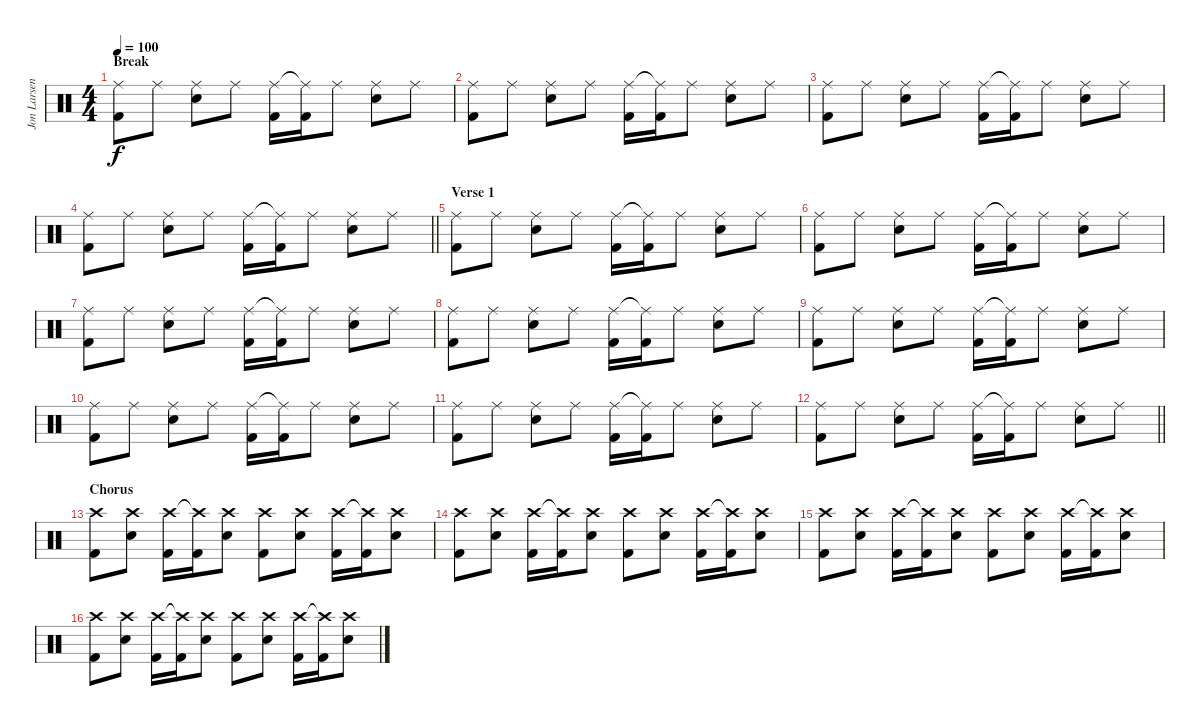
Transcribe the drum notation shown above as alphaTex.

\track ("Jon Larsen" "Jon Larsen") {instrument percussion}
\staff {score}
\articulation defaults
\ts (4 4)
\section ("" "Break")
\tempo 100
\clef neutral
\ks c
("Ride (middle)" "Kick (hit) 2").8{dy f} "Ride (middle)".8 ("Ride (middle)" "Snare (hit) 2").8 "Ride (middle)".8 ("Ride (middle)" "Kick (hit) 2").16 ("Ride (middle)"{t} "Kick (hit) 2").16 "Ride (middle)".8 ("Ride (middle)" "Snare (hit) 2").8 "Ride (middle)".8 |
("Ride (middle)" "Kick (hit) 2").8 "Ride (middle)".8 ("Ride (middle)" "Snare (hit) 2").8 "Ride (middle)".8 ("Ride (middle)" "Kick (hit) 2").16 ("Ride (middle)"{t} "Kick (hit) 2").16 "Ride (middle)".8 ("Ride (middle)" "Snare (hit) 2").8 "Ride (middle)".8 |
("Ride (middle)" "Kick (hit) 2").8 "Ride (middle)".8 ("Ride (middle)" "Snare (hit) 2").8 "Ride (middle)".8 ("Ride (middle)" "Kick (hit) 2").16 ("Ride (middle)"{t} "Kick (hit) 2").16 "Ride (middle)".8 ("Ride (middle)" "Snare (hit) 2").8 "Ride (middle)".8 |
\barLineRight lightlight
("Ride (middle)" "Kick (hit) 2").8 "Ride (middle)".8 ("Ride (middle)" "Snare (hit) 2").8 "Ride (middle)".8 ("Ride (middle)" "Kick (hit) 2").16 ("Ride (middle)"{t} "Kick (hit) 2").16 "Ride (middle)".8 ("Ride (middle)" "Snare (hit) 2").8 "Ride (middle)".8 |
\section ("" "Verse 1")
("Ride (middle)" "Kick (hit) 2").8 "Ride (middle)".8 ("Ride (middle)" "Snare (hit) 2").8 "Ride (middle)".8 ("Ride (middle)" "Kick (hit) 2").16 ("Ride (middle)"{t} "Kick (hit) 2").16 "Ride (middle)".8 ("Ride (middle)" "Snare (hit) 2").8 "Ride (middle)".8 |
("Ride (middle)" "Kick (hit) 2").8 "Ride (middle)".8 ("Ride (middle)" "Snare (hit) 2").8 "Ride (middle)".8 ("Ride (middle)" "Kick (hit) 2").16 ("Ride (middle)"{t} "Kick (hit) 2").16 "Ride (middle)".8 ("Ride (middle)" "Snare (hit) 2").8 "Ride (middle)".8 |
("Ride (middle)" "Kick (hit) 2").8 "Ride (middle)".8 ("Ride (middle)" "Snare (hit) 2").8 "Ride (middle)".8 ("Ride (middle)" "Kick (hit) 2").16 ("Ride (middle)"{t} "Kick (hit) 2").16 "Ride (middle)".8 ("Ride (middle)" "Snare (hit) 2").8 "Ride (middle)".8 |
("Ride (middle)" "Kick (hit) 2").8 "Ride (middle)".8 ("Ride (middle)" "Snare (hit) 2").8 "Ride (middle)".8 ("Ride (middle)" "Kick (hit) 2").16 ("Ride (middle)"{t} "Kick (hit) 2").16 "Ride (middle)".8 ("Ride (middle)" "Snare (hit) 2").8 "Ride (middle)".8 |
("Ride (middle)" "Kick (hit) 2").8 "Ride (middle)".8 ("Ride (middle)" "Snare (hit) 2").8 "Ride (middle)".8 ("Ride (middle)" "Kick (hit) 2").16 ("Ride (middle)"{t} "Kick (hit) 2").16 "Ride (middle)".8 ("Ride (middle)" "Snare (hit) 2").8 "Ride (middle)".8 |
("Ride (middle)" "Kick (hit) 2").8 "Ride (middle)".8 ("Ride (middle)" "Snare (hit) 2").8 "Ride (middle)".8 ("Ride (middle)" "Kick (hit) 2").16 ("Ride (middle)"{t} "Kick (hit) 2").16 "Ride (middle)".8 ("Ride (middle)" "Snare (hit) 2").8 "Ride (middle)".8 |
("Ride (middle)" "Kick (hit) 2").8 "Ride (middle)".8 ("Ride (middle)" "Snare (hit) 2").8 "Ride (middle)".8 ("Ride (middle)" "Kick (hit) 2").16 ("Ride (middle)"{t} "Kick (hit) 2").16 "Ride (middle)".8 ("Ride (middle)" "Snare (hit) 2").8 "Ride (middle)".8 |
\barLineRight lightlight
("Ride (middle)" "Kick (hit) 2").8 "Ride (middle)".8 ("Ride (middle)" "Snare (hit) 2").8 "Ride (middle)".8 ("Ride (middle)" "Kick (hit) 2").16 ("Ride (middle)"{t} "Kick (hit) 2").16 "Ride (middle)".8 ("Ride (middle)" "Snare (hit) 2").8 "Ride (middle)".8 |
\section ("" "Chorus")
("Crash high (hit)" "Kick (hit) 2").8 ("Crash high (hit)" "Snare (hit) 2").8 ("Crash high (hit)" "Kick (hit) 2").16 ("Crash high (hit)"{t} "Kick (hit) 2").16 ("Crash high (hit)" "Snare (hit) 2").8 ("Crash high (hit)" "Kick (hit) 2").8 ("Crash high (hit)" "Snare (hit) 2").8 ("Crash high (hit)" "Kick (hit) 2").16 ("Crash high (hit)"{t} "Kick (hit) 2").16 ("Crash high (hit)" "Snare (hit) 2").8 |
("Crash high (hit)" "Kick (hit) 2").8 ("Crash high (hit)" "Snare (hit) 2").8 ("Crash high (hit)" "Kick (hit) 2").16 ("Crash high (hit)"{t} "Kick (hit) 2").16 ("Crash high (hit)" "Snare (hit) 2").8 ("Crash high (hit)" "Kick (hit) 2").8 ("Crash high (hit)" "Snare (hit) 2").8 ("Crash high (hit)" "Kick (hit) 2").16 ("Crash high (hit)"{t} "Kick (hit) 2").16 ("Crash high (hit)" "Snare (hit) 2").8 |
("Crash high (hit)" "Kick (hit) 2").8 ("Crash high (hit)" "Snare (hit) 2").8 ("Crash high (hit)" "Kick (hit) 2").16 ("Crash high (hit)"{t} "Kick (hit) 2").16 ("Crash high (hit)" "Snare (hit) 2").8 ("Crash high (hit)" "Kick (hit) 2").8 ("Crash high (hit)" "Snare (hit) 2").8 ("Crash high (hit)" "Kick (hit) 2").16 ("Crash high (hit)"{t} "Kick (hit) 2").16 ("Crash high (hit)" "Snare (hit) 2").8 |
("Crash high (hit)" "Kick (hit) 2").8 ("Crash high (hit)" "Snare (hit) 2").8 ("Crash high (hit)" "Kick (hit) 2").16 ("Crash high (hit)"{t} "Kick (hit) 2").16 ("Crash high (hit)" "Snare (hit) 2").8 ("Crash high (hit)" "Kick (hit) 2").8 ("Crash high (hit)" "Snare (hit) 2").8 ("Crash high (hit)" "Kick (hit) 2").16 ("Crash high (hit)"{t} "Kick (hit) 2").16 ("Crash high (hit)" "Snare (hit) 2").8
